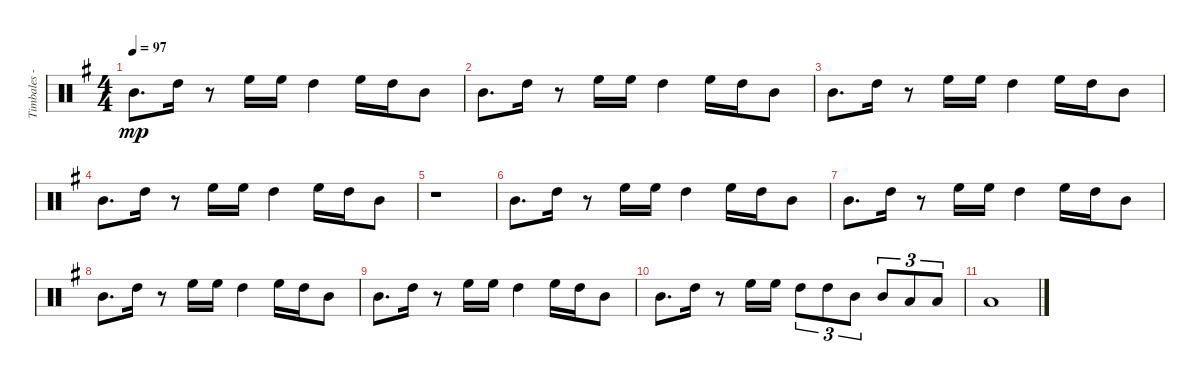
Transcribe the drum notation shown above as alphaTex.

\track ("Timbales - Alex Acuna" "Timbales -") {instrument percussion}
\staff {score}
\articulation defaults
\ts (4 4)
\tempo 97
\clef neutral
\ks g "Mid Tom (hit)".8{d dy mp} "High Tom (hit)".16
r.8 "High Floor Tom (hit)".16 "High Floor Tom (hit)".16 "High Tom (hit)".4 "High Floor Tom (hit)".16 "High Tom (hit)".16 "Mid Tom (hit)".8 |
"Mid Tom (hit)".8{d} "High Tom (hit)".16 r.8 "High Floor Tom (hit)".16 "High Floor Tom (hit)".16 "High Tom (hit)".4 "High Floor Tom (hit)".16 "High Tom (hit)".16 "Mid Tom (hit)".8 |
"Mid Tom (hit)".8{d} "High Tom (hit)".16 r.8 "High Floor Tom (hit)".16 "High Floor Tom (hit)".16 "High Tom (hit)".4 "High Floor Tom (hit)".16 "High Tom (hit)".16 "Mid Tom (hit)".8 |
"Mid Tom (hit)".8{d} "High Tom (hit)".16 r.8 "High Floor Tom (hit)".16 "High Floor Tom (hit)".16 "High Tom (hit)".4 "High Floor Tom (hit)".16 "High Tom (hit)".16 "Mid Tom (hit)".8 |
r.1 |
"Mid Tom (hit)".8{d} "High Tom (hit)".16 r.8 "High Floor Tom (hit)".16 "High Floor Tom (hit)".16 "High Tom (hit)".4 "High Floor Tom (hit)".16 "High Tom (hit)".16 "Mid Tom (hit)".8 |
"Mid Tom (hit)".8{d} "High Tom (hit)".16 r.8 "High Floor Tom (hit)".16 "High Floor Tom (hit)".16 "High Tom (hit)".4 "High Floor Tom (hit)".16 "High Tom (hit)".16 "Mid Tom (hit)".8 |
"Mid Tom (hit)".8{d} "High Tom (hit)".16 r.8 "High Floor Tom (hit)".16 "High Floor Tom (hit)".16 "High Tom (hit)".4 "High Floor Tom (hit)".16 "High Tom (hit)".16 "Mid Tom (hit)".8 |
"Mid Tom (hit)".8{d} "High Tom (hit)".16 r.8 "High Floor Tom (hit)".16 "High Floor Tom (hit)".16 "High Tom (hit)".4 "High Floor Tom (hit)".16 "High Tom (hit)".16 "Mid Tom (hit)".8 |
"Mid Tom (hit)".8{d} "High Tom (hit)".16 r.8 "High Floor Tom (hit)".16 "High Floor Tom (hit)".16 "High Tom (hit)".8{tu (3 2)} "High Tom (hit)".8{tu (3 2)} "Mid Tom (hit)".8{tu (3 2)} "Mid Tom (hit)".8{tu (3 2)} "Low Tom (hit)".8{tu (3 2)} "Low Tom (hit)".8{tu (3 2)} |
"Low Tom (hit)".1
